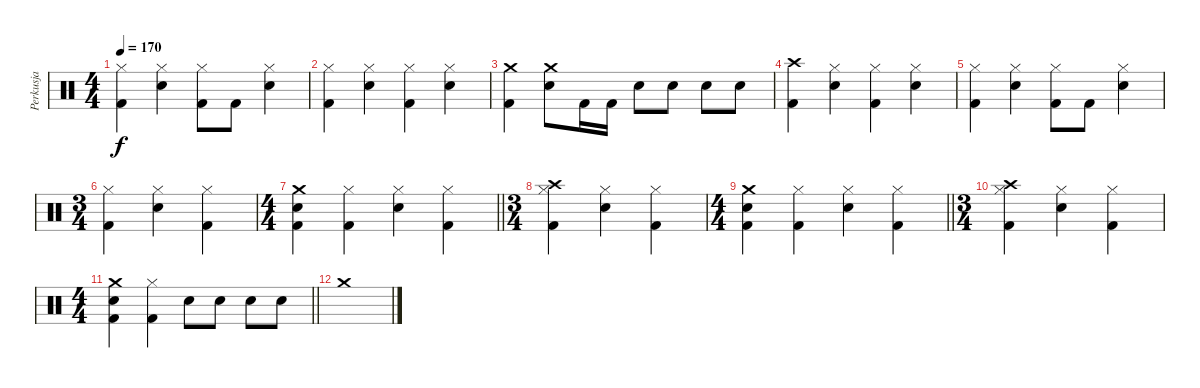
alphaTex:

\track ("Perkusja" "Perkusja") {instrument percussion}
\staff {score}
\articulation defaults
\ts (4 4)
\tempo 170
\clef neutral
\ks c
("Hi-Hat (closed)" "Kick (hit) 2").4{dy f} ("Hi-Hat (closed)" "Snare (hit) 2").4 ("Hi-Hat (closed)" "Kick (hit) 2").8 "Kick (hit) 2".8 ("Hi-Hat (closed)" "Snare (hit) 2").4 |
("Hi-Hat (closed)" "Kick (hit) 2").4 ("Hi-Hat (closed)" "Snare (hit) 2").4 ("Hi-Hat (closed)" "Kick (hit) 2").4 ("Hi-Hat (closed)" "Snare (hit) 2").4 |
("Crash medium (hit)" "Kick (hit) 2").4 ("Crash medium (hit)" "Snare (hit) 2").8 "Kick (hit) 2".16 "Kick (hit) 2".16 "Snare (hit) 2".8 "Snare (hit) 2".8 "Snare (hit) 2".8 "Snare (hit) 2".8 |
("Crash high (hit)" "Kick (hit) 2").4 ("Hi-Hat (closed)" "Snare (hit) 2").4 ("Hi-Hat (closed)" "Kick (hit) 2").4 ("Hi-Hat (closed)" "Snare (hit) 2").4 |
("Hi-Hat (closed)" "Kick (hit) 2").4 ("Hi-Hat (closed)" "Snare (hit) 2").4 ("Hi-Hat (closed)" "Kick (hit) 2").8 "Kick (hit) 2".8 ("Hi-Hat (closed)" "Snare (hit) 2").4 |
\ts (3 4)
("Hi-Hat (closed)" "Kick (hit) 2").4 ("Hi-Hat (closed)" "Snare (hit) 2").4 ("Hi-Hat (closed)" "Kick (hit) 2").4 |
\ts (4 4)
\barLineRight lightlight
("Crash medium (hit)" "Kick (hit) 2" "Snare (hit) 2").4 ("Hi-Hat (closed)" "Kick (hit) 2").4 ("Hi-Hat (closed)" "Snare (hit) 2").4 ("Hi-Hat (closed)" "Kick (hit) 2").4 |
\ts (3 4)
("Hi-Hat (closed)" "Kick (hit) 2" "Crash high (hit)").4 ("Hi-Hat (closed)" "Snare (hit) 2").4 ("Hi-Hat (closed)" "Kick (hit) 2").4 |
\ts (4 4)
\barLineRight lightlight
("Crash medium (hit)" "Kick (hit) 2" "Snare (hit) 2").4 ("Hi-Hat (closed)" "Kick (hit) 2").4 ("Hi-Hat (closed)" "Snare (hit) 2").4 ("Hi-Hat (closed)" "Kick (hit) 2").4 |
\ts (3 4)
("Hi-Hat (closed)" "Kick (hit) 2" "Crash high (hit)").4 ("Hi-Hat (closed)" "Snare (hit) 2").4 ("Hi-Hat (closed)" "Kick (hit) 2").4 |
\ts (4 4)
\barLineRight lightlight
("Crash medium (hit)" "Kick (hit) 2" "Snare (hit) 2").4 ("Hi-Hat (closed)" "Kick (hit) 2").4 "Snare (hit) 2".8 "Snare (hit) 2".8 "Snare (hit) 2".8 "Snare (hit) 2".8 |
"Crash medium (hit)".1
